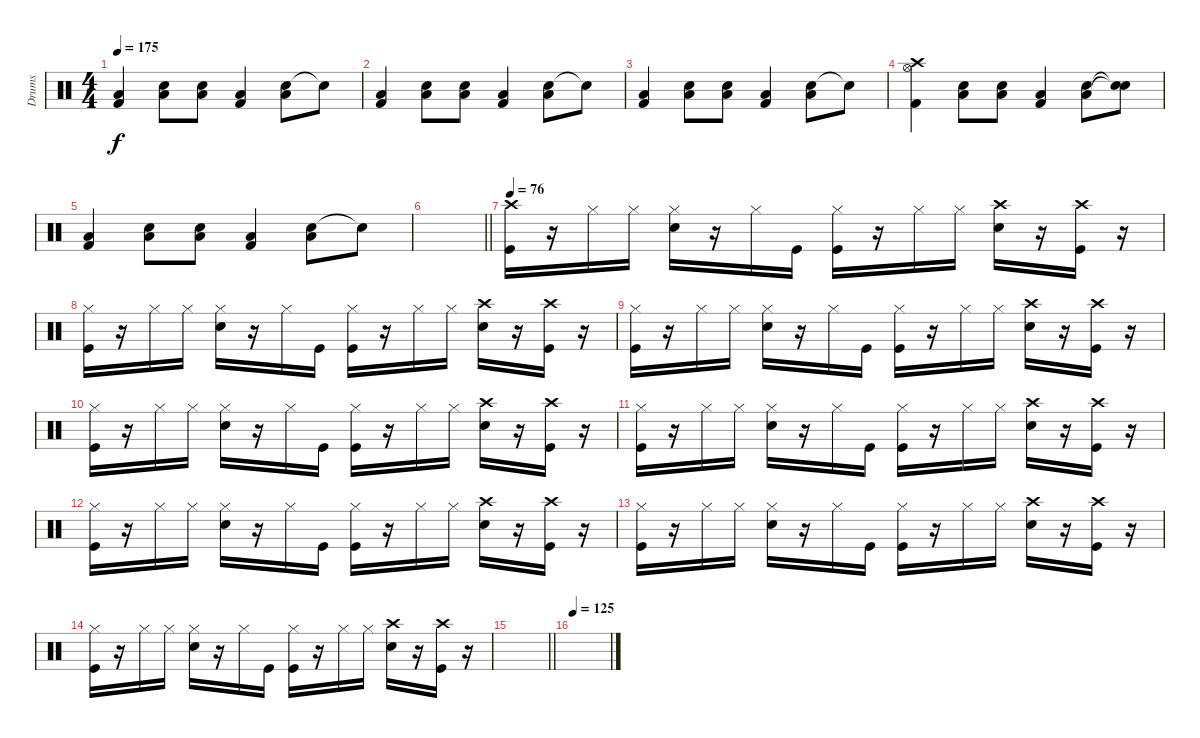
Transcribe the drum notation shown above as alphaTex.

\track ("Drums" "Drums") {instrument percussion}
\staff {score}
\articulation defaults
\ts (4 4)
\tempo 175
\clef neutral
\ks c
("Kick (hit) 2" "Low Floor Tom (hit)").4{dy f} ("Snare (hit) 2" "Low Floor Tom (hit)").8 ("Snare (hit) 2" "Low Floor Tom (hit)").8 ("Kick (hit) 2" "Low Floor Tom (hit)").4 ("Snare (hit) 2" "Low Floor Tom (hit)").8 "Snare (hit)"{t}.8 |
("Kick (hit) 2" "Low Floor Tom (hit)").4 ("Snare (hit) 2" "Low Floor Tom (hit)").8 ("Snare (hit) 2" "Low Floor Tom (hit)").8 ("Kick (hit) 2" "Low Floor Tom (hit)").4 ("Snare (hit) 2" "Low Floor Tom (hit)").8 "Snare (hit)"{t}.8 |
("Kick (hit) 2" "Low Floor Tom (hit)").4 ("Snare (hit) 2" "Low Floor Tom (hit)").8 ("Snare (hit) 2" "Low Floor Tom (hit)").8 ("Kick (hit) 2" "Low Floor Tom (hit)").4 ("Snare (hit) 2" "Low Floor Tom (hit)").8 "Snare (hit)"{t}.8 |
("Hi-Hat (open)" "Kick (hit) 2" "Crash high (hit)").4 ("Snare (hit) 2" "Low Floor Tom (hit)").8 ("Snare (hit) 2" "Low Floor Tom (hit)").8 ("Kick (hit) 2" "Low Floor Tom (hit)").4 ("Snare (hit) 2" "Low Floor Tom (hit)").8 ("Snare (hit)"{t} "Snare (hit)"{t}).8 |
("Kick (hit) 2" "Low Floor Tom (hit)").4 ("Snare (hit) 2" "Low Floor Tom (hit)").8 ("Snare (hit) 2" "Low Floor Tom (hit)").8 ("Kick (hit) 2" "Low Floor Tom (hit)").4 ("Snare (hit) 2" "Low Floor Tom (hit)").8 "Snare (hit)"{t}.8 |
\barLineRight lightlight
|
\tempo 76
("Kick (hit)" "Crash high (hit)").16 r.16 "Hi-Hat (closed)".16 "Hi-Hat (closed)".16 ("Snare (hit) 2" "Hi-Hat (closed)").16 r.16 "Hi-Hat (closed)".16 "Kick (hit)".16 ("Kick (hit)" "Hi-Hat (closed)").16 r.16 "Hi-Hat (closed)".16 "Hi-Hat (closed)".16 ("Crash high (hit)" "Snare (hit) 2").16 r.16 ("Kick (hit)" "Crash high (hit)").16 r.16 |
("Kick (hit)" "Hi-Hat (closed)").16 r.16 "Hi-Hat (closed)".16 "Hi-Hat (closed)".16 ("Snare (hit) 2" "Hi-Hat (closed)").16 r.16 "Hi-Hat (closed)".16 "Kick (hit)".16 ("Kick (hit)" "Hi-Hat (closed)").16 r.16 "Hi-Hat (closed)".16 "Hi-Hat (closed)".16 ("Crash high (hit)" "Snare (hit) 2").16 r.16 ("Kick (hit)" "Crash high (hit)").16 r.16 |
("Kick (hit)" "Hi-Hat (closed)").16 r.16 "Hi-Hat (closed)".16 "Hi-Hat (closed)".16 ("Snare (hit) 2" "Hi-Hat (closed)").16 r.16 "Hi-Hat (closed)".16 "Kick (hit)".16 ("Kick (hit)" "Hi-Hat (closed)").16 r.16 "Hi-Hat (closed)".16 "Hi-Hat (closed)".16 ("Crash high (hit)" "Snare (hit) 2").16 r.16 ("Kick (hit)" "Crash high (hit)").16 r.16 |
("Kick (hit)" "Hi-Hat (closed)").16 r.16 "Hi-Hat (closed)".16 "Hi-Hat (closed)".16 ("Snare (hit) 2" "Hi-Hat (closed)").16 r.16 "Hi-Hat (closed)".16 "Kick (hit)".16 ("Kick (hit)" "Hi-Hat (closed)").16 r.16 "Hi-Hat (closed)".16 "Hi-Hat (closed)".16 ("Crash high (hit)" "Snare (hit) 2").16 r.16 ("Kick (hit)" "Crash high (hit)").16 r.16 |
("Kick (hit)" "Hi-Hat (closed)").16 r.16 "Hi-Hat (closed)".16 "Hi-Hat (closed)".16 ("Snare (hit) 2" "Hi-Hat (closed)").16 r.16 "Hi-Hat (closed)".16 "Kick (hit)".16 ("Kick (hit)" "Hi-Hat (closed)").16 r.16 "Hi-Hat (closed)".16 "Hi-Hat (closed)".16 ("Crash high (hit)" "Snare (hit) 2").16 r.16 ("Kick (hit)" "Crash high (hit)").16 r.16 |
("Kick (hit)" "Hi-Hat (closed)").16 r.16 "Hi-Hat (closed)".16 "Hi-Hat (closed)".16 ("Snare (hit) 2" "Hi-Hat (closed)").16 r.16 "Hi-Hat (closed)".16 "Kick (hit)".16 ("Kick (hit)" "Hi-Hat (closed)").16 r.16 "Hi-Hat (closed)".16 "Hi-Hat (closed)".16 ("Crash high (hit)" "Snare (hit) 2").16 r.16 ("Kick (hit)" "Crash high (hit)").16 r.16 |
("Kick (hit)" "Hi-Hat (closed)").16 r.16 "Hi-Hat (closed)".16 "Hi-Hat (closed)".16 ("Snare (hit) 2" "Hi-Hat (closed)").16 r.16 "Hi-Hat (closed)".16 "Kick (hit)".16 ("Kick (hit)" "Hi-Hat (closed)").16 r.16 "Hi-Hat (closed)".16 "Hi-Hat (closed)".16 ("Crash high (hit)" "Snare (hit) 2").16 r.16 ("Kick (hit)" "Crash high (hit)").16 r.16 |
("Kick (hit)" "Hi-Hat (closed)").16 r.16 "Hi-Hat (closed)".16 "Hi-Hat (closed)".16 ("Snare (hit) 2" "Hi-Hat (closed)").16 r.16 "Hi-Hat (closed)".16 "Kick (hit)".16 ("Kick (hit)" "Hi-Hat (closed)").16 r.16 "Hi-Hat (closed)".16 "Hi-Hat (closed)".16 ("Crash high (hit)" "Snare (hit) 2").16 r.16 ("Kick (hit)" "Crash high (hit)").16 r.16 |
\barLineRight lightlight
|
\tempo 125
